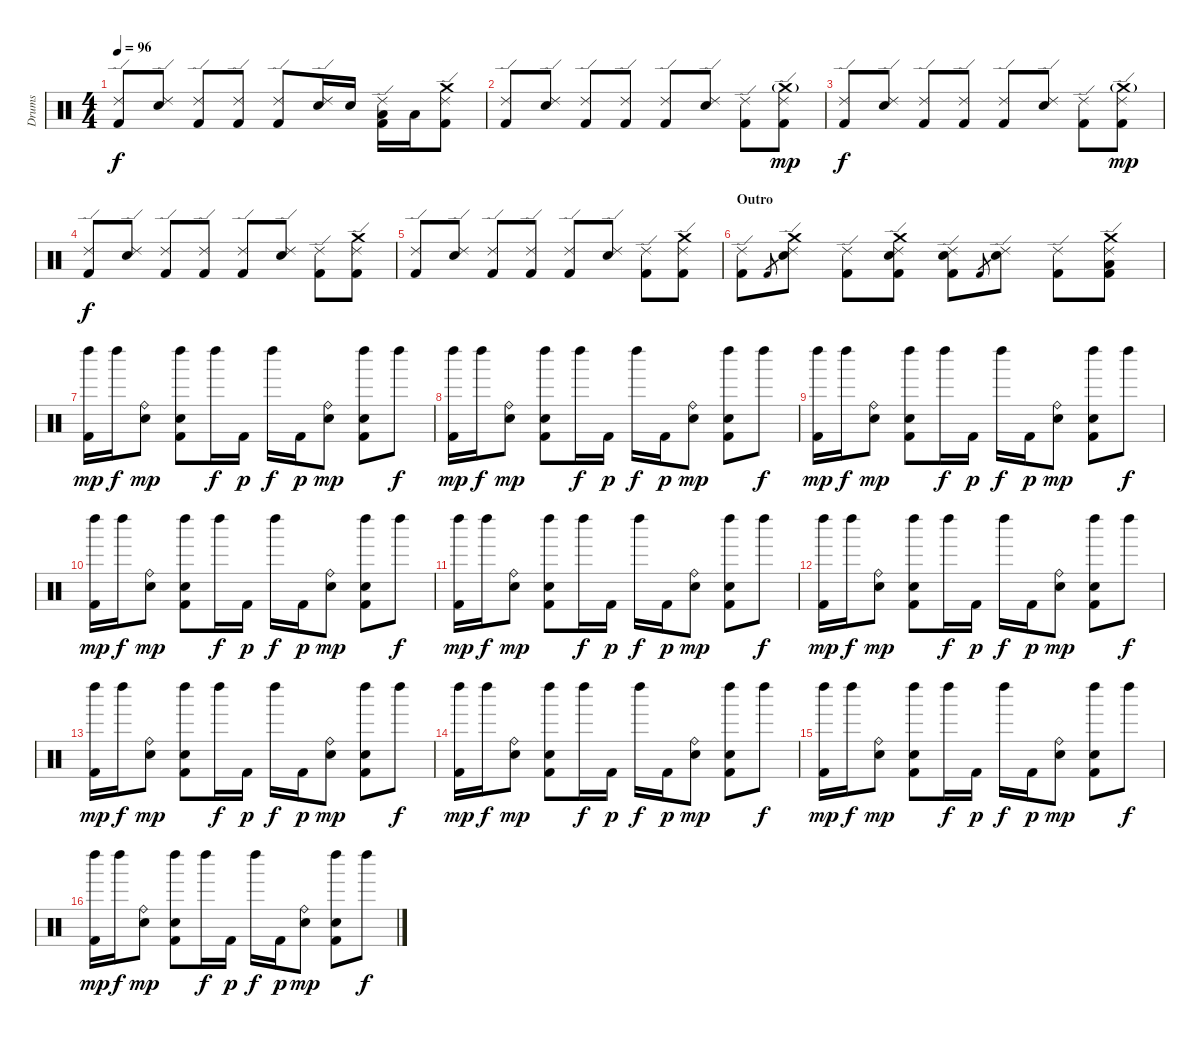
\track ("Drums" "Drums") {instrument percussion}
\staff {score}
\articulation defaults
\ts (4 4)
\tempo 96
\clef neutral
\ks c
("Ride (edge) 2" "Kick (hit) 2").8{dy f} ("Ride (edge) 2" "Snare (hit) 2").8 ("Ride (edge) 2" "Kick (hit) 2").8 ("Ride (edge) 2" "Kick (hit) 2").8 ("Ride (edge) 2" "Kick (hit) 2").8 ("Ride (edge) 2" "Snare (hit) 2").16 "Snare (hit) 2".16 ("Ride (edge) 2" "Low Tom (hit)" "Kick (hit) 2").16 "Low Tom (hit)".16 ("Crash medium (hit)" "Ride (edge) 2" "Kick (hit) 2").8 |
("Ride (edge) 2" "Kick (hit) 2").8 ("Ride (edge) 2" "Snare (hit) 2").8 ("Ride (edge) 2" "Kick (hit) 2").8 ("Ride (edge) 2" "Kick (hit) 2").8 ("Ride (edge) 2" "Kick (hit) 2").8 ("Ride (edge) 2" "Snare (hit) 2").8 ("Ride (edge) 2" "Kick (hit) 2").8 ("Crash medium (hit)"{g} "Ride (edge) 2" "Kick (hit) 2").8{dy mp} |
("Ride (edge) 2" "Kick (hit) 2").8{dy f} ("Ride (edge) 2" "Snare (hit) 2").8 ("Ride (edge) 2" "Kick (hit) 2").8 ("Ride (edge) 2" "Kick (hit) 2").8 ("Ride (edge) 2" "Kick (hit) 2").8 ("Ride (edge) 2" "Snare (hit) 2").8 ("Ride (edge) 2" "Kick (hit) 2").8 ("Crash medium (hit)"{g} "Ride (edge) 2" "Kick (hit) 2").8{dy mp} |
("Ride (edge) 2" "Kick (hit) 2").8{dy f} ("Ride (edge) 2" "Snare (hit) 2").8 ("Ride (edge) 2" "Kick (hit) 2").8 ("Ride (edge) 2" "Kick (hit) 2").8 ("Ride (edge) 2" "Kick (hit) 2").8 ("Ride (edge) 2" "Snare (hit) 2").8 ("Ride (edge) 2" "Kick (hit) 2").8 ("Crash medium (hit)" "Ride (edge) 2" "Kick (hit) 2").8 |
("Ride (edge) 2" "Kick (hit) 2").8 ("Ride (edge) 2" "Snare (hit) 2").8 ("Ride (edge) 2" "Kick (hit) 2").8 ("Ride (edge) 2" "Kick (hit) 2").8 ("Ride (edge) 2" "Kick (hit) 2").8 ("Ride (edge) 2" "Snare (hit) 2").8 ("Ride (edge) 2" "Kick (hit) 2").8 ("Crash medium (hit)" "Ride (edge) 2" "Kick (hit) 2").8 |
\section ("" "Outro")
("Ride (edge) 2" "Kick (hit) 2").8 "Kick (hit) 2".8{gr} ("Crash medium (hit)" "Ride (edge) 2" "Snare (hit) 2").8 ("Ride (edge) 2" "Kick (hit) 2").8 ("Crash medium (hit)" "Ride (edge) 2" "Snare (hit) 2" "Kick (hit) 2").8 ("Ride (edge) 2" "Snare (hit) 2" "Kick (hit) 2").8 "Kick (hit) 2".8{gr} ("Ride (edge) 2" "Snare (hit) 2").8 ("Ride (edge) 2" "Kick (hit) 2").8 ("Crash medium (hit)" "Ride (edge) 2" "Low Tom (hit)" "Kick (hit) 2").8 |
("Left Maraca (hit)" "Kick (hit) 2").16{dy mp} "Left Maraca (hit)".16{dy f} ("Snare (hit) 2" "Ride (bell)").8{dy mp} ("Left Maraca (hit)" "Electric Snare (hit)" "Kick (hit) 2").8 "Left Maraca (hit)".16{dy f} "Kick (hit) 2".16{dy p} "Left Maraca (hit)".16{dy f} "Kick (hit) 2".16{dy p} ("Snare (hit) 2" "Ride (bell)").8{dy mp} ("Left Maraca (hit)" "Electric Snare (hit)" "Kick (hit) 2").8 "Left Maraca (hit)".8{dy f} |
("Left Maraca (hit)" "Kick (hit) 2").16{dy mp} "Left Maraca (hit)".16{dy f} ("Snare (hit) 2" "Ride (bell)").8{dy mp} ("Left Maraca (hit)" "Electric Snare (hit)" "Kick (hit) 2").8 "Left Maraca (hit)".16{dy f} "Kick (hit) 2".16{dy p} "Left Maraca (hit)".16{dy f} "Kick (hit) 2".16{dy p} ("Snare (hit) 2" "Ride (bell)").8{dy mp} ("Left Maraca (hit)" "Electric Snare (hit)" "Kick (hit) 2").8 "Left Maraca (hit)".8{dy f} |
("Left Maraca (hit)" "Kick (hit) 2").16{dy mp} "Left Maraca (hit)".16{dy f} ("Snare (hit) 2" "Ride (bell)").8{dy mp} ("Left Maraca (hit)" "Electric Snare (hit)" "Kick (hit) 2").8 "Left Maraca (hit)".16{dy f} "Kick (hit) 2".16{dy p} "Left Maraca (hit)".16{dy f} "Kick (hit) 2".16{dy p} ("Snare (hit) 2" "Ride (bell)").8{dy mp} ("Left Maraca (hit)" "Electric Snare (hit)" "Kick (hit) 2").8 "Left Maraca (hit)".8{dy f} |
("Left Maraca (hit)" "Kick (hit) 2").16{dy mp} "Left Maraca (hit)".16{dy f} ("Snare (hit) 2" "Ride (bell)").8{dy mp} ("Left Maraca (hit)" "Electric Snare (hit)" "Kick (hit) 2").8 "Left Maraca (hit)".16{dy f} "Kick (hit) 2".16{dy p} "Left Maraca (hit)".16{dy f} "Kick (hit) 2".16{dy p} ("Snare (hit) 2" "Ride (bell)").8{dy mp} ("Left Maraca (hit)" "Electric Snare (hit)" "Kick (hit) 2").8 "Left Maraca (hit)".8{dy f} |
("Left Maraca (hit)" "Kick (hit) 2").16{dy mp} "Left Maraca (hit)".16{dy f} ("Snare (hit) 2" "Ride (bell)").8{dy mp} ("Left Maraca (hit)" "Electric Snare (hit)" "Kick (hit) 2").8 "Left Maraca (hit)".16{dy f} "Kick (hit) 2".16{dy p} "Left Maraca (hit)".16{dy f} "Kick (hit) 2".16{dy p} ("Snare (hit) 2" "Ride (bell)").8{dy mp} ("Left Maraca (hit)" "Electric Snare (hit)" "Kick (hit) 2").8 "Left Maraca (hit)".8{dy f} |
("Left Maraca (hit)" "Kick (hit) 2").16{dy mp} "Left Maraca (hit)".16{dy f} ("Snare (hit) 2" "Ride (bell)").8{dy mp} ("Left Maraca (hit)" "Electric Snare (hit)" "Kick (hit) 2").8 "Left Maraca (hit)".16{dy f} "Kick (hit) 2".16{dy p} "Left Maraca (hit)".16{dy f} "Kick (hit) 2".16{dy p} ("Snare (hit) 2" "Ride (bell)").8{dy mp} ("Left Maraca (hit)" "Electric Snare (hit)" "Kick (hit) 2").8 "Left Maraca (hit)".8{dy f} |
("Left Maraca (hit)" "Kick (hit) 2").16{dy mp} "Left Maraca (hit)".16{dy f} ("Snare (hit) 2" "Ride (bell)").8{dy mp} ("Left Maraca (hit)" "Electric Snare (hit)" "Kick (hit) 2").8 "Left Maraca (hit)".16{dy f} "Kick (hit) 2".16{dy p} "Left Maraca (hit)".16{dy f} "Kick (hit) 2".16{dy p} ("Snare (hit) 2" "Ride (bell)").8{dy mp} ("Left Maraca (hit)" "Electric Snare (hit)" "Kick (hit) 2").8 "Left Maraca (hit)".8{dy f} |
("Left Maraca (hit)" "Kick (hit) 2").16{dy mp} "Left Maraca (hit)".16{dy f} ("Snare (hit) 2" "Ride (bell)").8{dy mp} ("Left Maraca (hit)" "Electric Snare (hit)" "Kick (hit) 2").8 "Left Maraca (hit)".16{dy f} "Kick (hit) 2".16{dy p} "Left Maraca (hit)".16{dy f} "Kick (hit) 2".16{dy p} ("Snare (hit) 2" "Ride (bell)").8{dy mp} ("Left Maraca (hit)" "Electric Snare (hit)" "Kick (hit) 2").8 "Left Maraca (hit)".8{dy f} |
("Left Maraca (hit)" "Kick (hit) 2").16{dy mp} "Left Maraca (hit)".16{dy f} ("Snare (hit) 2" "Ride (bell)").8{dy mp} ("Left Maraca (hit)" "Electric Snare (hit)" "Kick (hit) 2").8 "Left Maraca (hit)".16{dy f} "Kick (hit) 2".16{dy p} "Left Maraca (hit)".16{dy f} "Kick (hit) 2".16{dy p} ("Snare (hit) 2" "Ride (bell)").8{dy mp} ("Left Maraca (hit)" "Electric Snare (hit)" "Kick (hit) 2").8 "Left Maraca (hit)".8{dy f} |
("Left Maraca (hit)" "Kick (hit) 2").16{dy mp} "Left Maraca (hit)".16{dy f} ("Snare (hit) 2" "Ride (bell)").8{dy mp} ("Left Maraca (hit)" "Electric Snare (hit)" "Kick (hit) 2").8 "Left Maraca (hit)".16{dy f} "Kick (hit) 2".16{dy p} "Left Maraca (hit)".16{dy f} "Kick (hit) 2".16{dy p} ("Snare (hit) 2" "Ride (bell)").8{dy mp} ("Left Maraca (hit)" "Electric Snare (hit)" "Kick (hit) 2").8 "Left Maraca (hit)".8{dy f}
